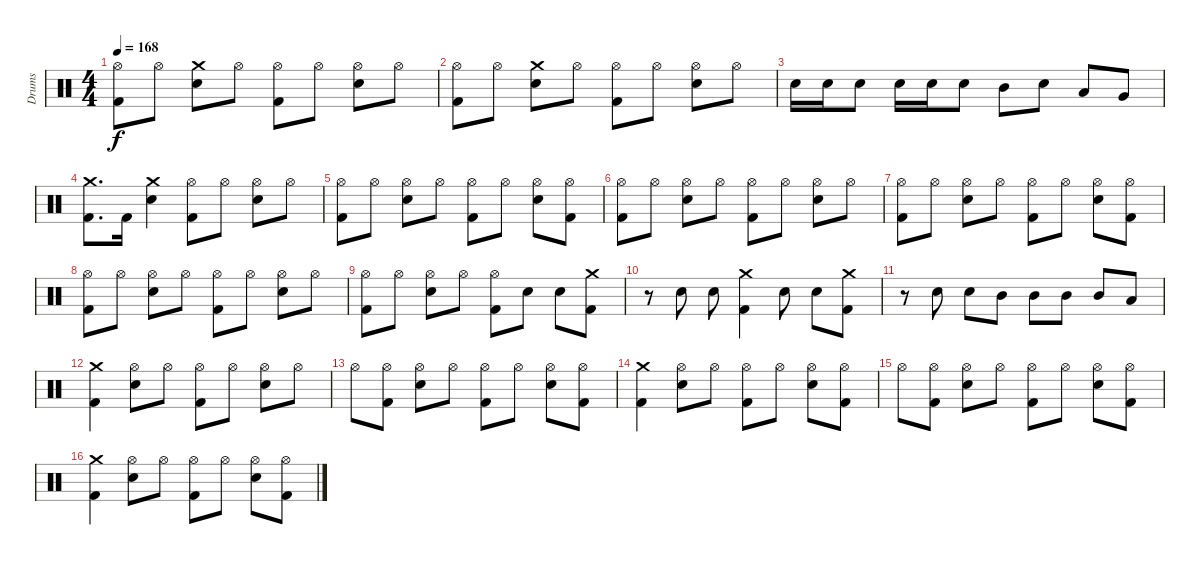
\track ("Drums" "Drums") {instrument percussion}
\staff {score}
\articulation defaults
\ts (4 4)
\tempo 168
\clef neutral
\ks c
("Hi-Hat (open)" "Kick (hit) 2").8{dy f} "Hi-Hat (open)".8 ("Crash medium (hit)" "Snare (hit) 2").8 "Hi-Hat (open)".8 ("Hi-Hat (open)" "Kick (hit) 2").8 "Hi-Hat (open)".8 ("Hi-Hat (open)" "Snare (hit) 2").8 "Hi-Hat (open)".8 |
("Hi-Hat (open)" "Kick (hit) 2").8 "Hi-Hat (open)".8 ("Crash medium (hit)" "Snare (hit) 2").8 "Hi-Hat (open)".8 ("Hi-Hat (open)" "Kick (hit) 2").8 "Hi-Hat (open)".8 ("Hi-Hat (open)" "Snare (hit) 2").8 "Hi-Hat (open)".8 |
"Snare (hit) 2".16 "Snare (hit) 2".16 "Snare (hit) 2".8 "Snare (hit) 2".16 "Snare (hit) 2".16 "Snare (hit) 2".8 "Mid Tom (hit)".8 "Snare (hit) 2".8 "Low Tom (hit)".8 "Very Low Tom (hit)".8 |
("Crash medium (hit)" "Kick (hit) 2").8{d} "Kick (hit) 2".16 ("Crash medium (hit)" "Snare (hit) 2").4 ("Hi-Hat (open)" "Kick (hit) 2").8 "Hi-Hat (open)".8 ("Hi-Hat (open)" "Snare (hit) 2").8 "Hi-Hat (open)".8 |
("Kick (hit) 2" "Hi-Hat (open)").8 "Hi-Hat (open)".8 ("Snare (hit) 2" "Hi-Hat (open)").8 "Hi-Hat (open)".8 ("Kick (hit) 2" "Hi-Hat (open)").8 "Hi-Hat (open)".8 ("Snare (hit) 2" "Hi-Hat (open)").8 ("Kick (hit) 2" "Hi-Hat (open)").8 |
("Kick (hit) 2" "Hi-Hat (open)").8 "Hi-Hat (open)".8 ("Snare (hit) 2" "Hi-Hat (open)").8 "Hi-Hat (open)".8 ("Kick (hit) 2" "Hi-Hat (open)").8 "Hi-Hat (open)".8 ("Snare (hit) 2" "Hi-Hat (open)").8 "Hi-Hat (open)".8 |
("Kick (hit) 2" "Hi-Hat (open)").8 "Hi-Hat (open)".8 ("Snare (hit) 2" "Hi-Hat (open)").8 "Hi-Hat (open)".8 ("Kick (hit) 2" "Hi-Hat (open)").8 "Hi-Hat (open)".8 ("Snare (hit) 2" "Hi-Hat (open)").8 ("Kick (hit) 2" "Hi-Hat (open)").8 |
("Kick (hit) 2" "Hi-Hat (open)").8 "Hi-Hat (open)".8 ("Snare (hit) 2" "Hi-Hat (open)").8 "Hi-Hat (open)".8 ("Kick (hit) 2" "Hi-Hat (open)").8 "Hi-Hat (open)".8 ("Snare (hit) 2" "Hi-Hat (open)").8 "Hi-Hat (open)".8 |
("Kick (hit) 2" "Hi-Hat (open)").8 "Hi-Hat (open)".8 ("Snare (hit) 2" "Hi-Hat (open)").8 "Hi-Hat (open)".8 ("Kick (hit) 2" "Hi-Hat (open)").8 "Snare (hit) 2".8 "Snare (hit) 2".8 ("Crash medium (hit)" "Kick (hit) 2").8 |
r.8 "Snare (hit) 2".8 "Snare (hit) 2".8 ("Crash medium (hit)" "Kick (hit) 2").4 "Snare (hit) 2".8 "Snare (hit) 2".8 ("Crash medium (hit)" "Kick (hit) 2").8 |
r.8 "Snare (hit) 2".8 "Snare (hit) 2".8 "Mid Tom (hit)".8 "Mid Tom (hit)".8 "Mid Tom (hit)".8 "Mid Tom (hit)".8 "Low Tom (hit)".8 |
("Crash medium (hit)" "Kick (hit) 2").4 ("Snare (hit) 2" "Hi-Hat (open)").8 "Hi-Hat (open)".8 ("Kick (hit) 2" "Hi-Hat (open)").8 "Hi-Hat (open)".8 ("Snare (hit) 2" "Hi-Hat (open)").8 "Hi-Hat (open)".8 |
"Hi-Hat (open)".8 ("Kick (hit) 2" "Hi-Hat (open)").8 ("Snare (hit) 2" "Hi-Hat (open)").8 "Hi-Hat (open)".8 ("Kick (hit) 2" "Hi-Hat (open)").8 "Hi-Hat (open)".8 ("Snare (hit) 2" "Hi-Hat (open)").8 ("Kick (hit) 2" "Hi-Hat (open)").8 |
("Kick (hit) 2" "Crash medium (hit)").4 ("Snare (hit) 2" "Hi-Hat (open)").8 "Hi-Hat (open)".8 ("Kick (hit) 2" "Hi-Hat (open)").8 "Hi-Hat (open)".8 ("Snare (hit) 2" "Hi-Hat (open)").8 ("Kick (hit) 2" "Hi-Hat (open)").8 |
"Hi-Hat (open)".8 ("Hi-Hat (open)" "Kick (hit) 2").8 ("Snare (hit) 2" "Hi-Hat (open)").8 "Hi-Hat (open)".8 ("Kick (hit) 2" "Hi-Hat (open)").8 "Hi-Hat (open)".8 ("Snare (hit) 2" "Hi-Hat (open)").8 ("Kick (hit) 2" "Hi-Hat (open)").8 |
("Crash medium (hit)" "Kick (hit) 2").4 ("Snare (hit) 2" "Hi-Hat (open)").8 "Hi-Hat (open)".8 ("Kick (hit) 2" "Hi-Hat (open)").8 "Hi-Hat (open)".8 ("Snare (hit) 2" "Hi-Hat (open)").8 ("Kick (hit) 2" "Hi-Hat (open)").8
